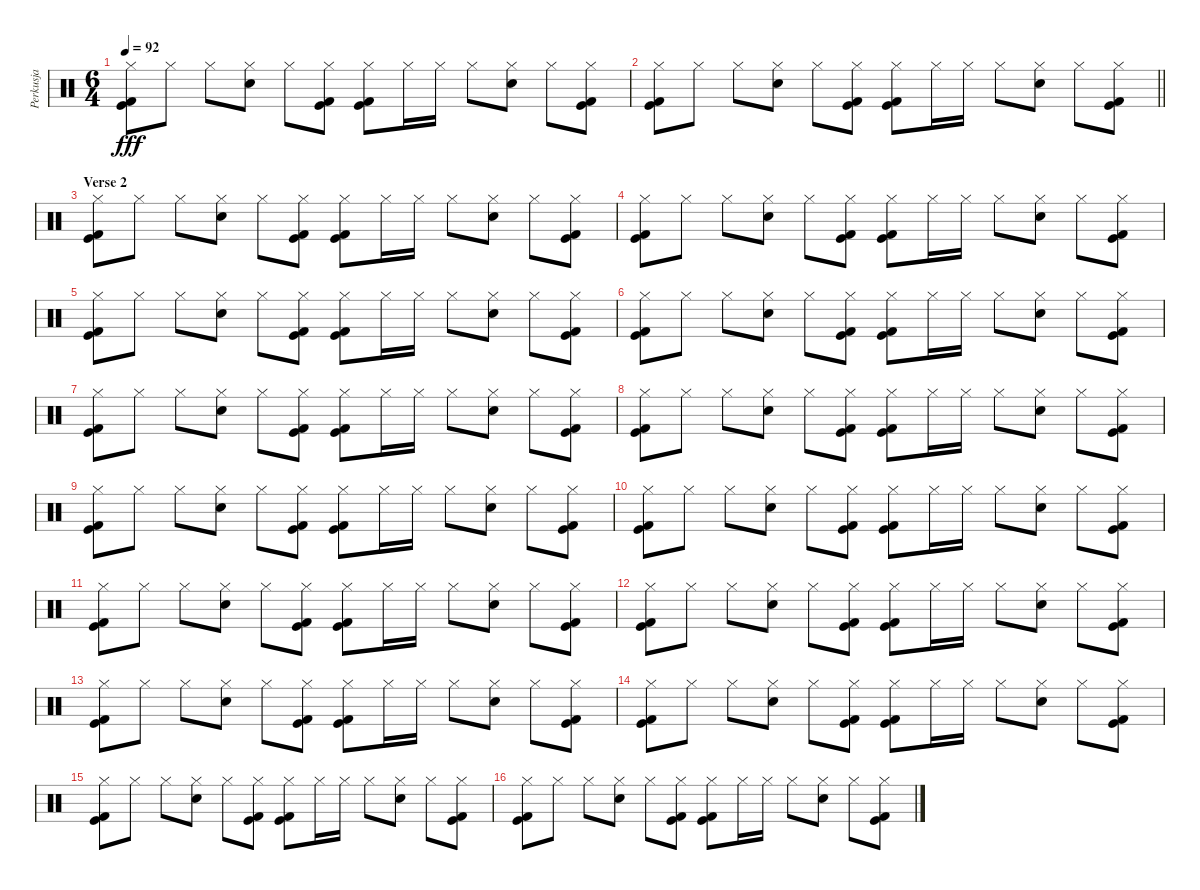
\track ("Perkusja" "Perkusja") {instrument percussion}
\staff {score}
\articulation defaults
\ts (6 4)
\tempo 92
\clef neutral
\ks c
("Hi-Hat (closed)" "Kick (hit)" "Kick (hit) 2").8{dy fff} "Hi-Hat (closed)".8 "Hi-Hat (closed)".8 ("Hi-Hat (closed)" "Electric Snare (hit)").8 "Hi-Hat (closed)".8 ("Hi-Hat (closed)" "Kick (hit)" "Kick (hit) 2").8 ("Hi-Hat (closed)" "Kick (hit)" "Kick (hit) 2").8 "Hi-Hat (closed)".16 "Hi-Hat (closed)".16 "Hi-Hat (closed)".8 ("Hi-Hat (closed)" "Electric Snare (hit)").8 "Hi-Hat (closed)".8 ("Hi-Hat (closed)" "Kick (hit)" "Kick (hit) 2").8 |
\barLineRight lightlight
("Hi-Hat (closed)" "Kick (hit)" "Kick (hit) 2").8 "Hi-Hat (closed)".8 "Hi-Hat (closed)".8 ("Hi-Hat (closed)" "Electric Snare (hit)").8 "Hi-Hat (closed)".8 ("Hi-Hat (closed)" "Kick (hit)" "Kick (hit) 2").8 ("Hi-Hat (closed)" "Kick (hit)" "Kick (hit) 2").8 "Hi-Hat (closed)".16 "Hi-Hat (closed)".16 "Hi-Hat (closed)".8 ("Hi-Hat (closed)" "Electric Snare (hit)").8 "Hi-Hat (closed)".8 ("Hi-Hat (closed)" "Kick (hit)" "Kick (hit) 2").8 |
\section ("" "Verse 2")
("Hi-Hat (closed)" "Kick (hit)" "Kick (hit) 2").8 "Hi-Hat (closed)".8 "Hi-Hat (closed)".8 ("Hi-Hat (closed)" "Electric Snare (hit)").8 "Hi-Hat (closed)".8 ("Hi-Hat (closed)" "Kick (hit)" "Kick (hit) 2").8 ("Hi-Hat (closed)" "Kick (hit)" "Kick (hit) 2").8 "Hi-Hat (closed)".16 "Hi-Hat (closed)".16 "Hi-Hat (closed)".8 ("Hi-Hat (closed)" "Electric Snare (hit)").8 "Hi-Hat (closed)".8 ("Hi-Hat (closed)" "Kick (hit)" "Kick (hit) 2").8 |
("Hi-Hat (closed)" "Kick (hit)" "Kick (hit) 2").8 "Hi-Hat (closed)".8 "Hi-Hat (closed)".8 ("Hi-Hat (closed)" "Electric Snare (hit)").8 "Hi-Hat (closed)".8 ("Hi-Hat (closed)" "Kick (hit)" "Kick (hit) 2").8 ("Hi-Hat (closed)" "Kick (hit)" "Kick (hit) 2").8 "Hi-Hat (closed)".16 "Hi-Hat (closed)".16 "Hi-Hat (closed)".8 ("Hi-Hat (closed)" "Electric Snare (hit)").8 "Hi-Hat (closed)".8 ("Hi-Hat (closed)" "Kick (hit)" "Kick (hit) 2").8 |
("Hi-Hat (closed)" "Kick (hit)" "Kick (hit) 2").8 "Hi-Hat (closed)".8 "Hi-Hat (closed)".8 ("Hi-Hat (closed)" "Electric Snare (hit)").8 "Hi-Hat (closed)".8 ("Hi-Hat (closed)" "Kick (hit)" "Kick (hit) 2").8 ("Hi-Hat (closed)" "Kick (hit)" "Kick (hit) 2").8 "Hi-Hat (closed)".16 "Hi-Hat (closed)".16 "Hi-Hat (closed)".8 ("Hi-Hat (closed)" "Electric Snare (hit)").8 "Hi-Hat (closed)".8 ("Hi-Hat (closed)" "Kick (hit)" "Kick (hit) 2").8 |
("Hi-Hat (closed)" "Kick (hit)" "Kick (hit) 2").8 "Hi-Hat (closed)".8 "Hi-Hat (closed)".8 ("Hi-Hat (closed)" "Electric Snare (hit)").8 "Hi-Hat (closed)".8 ("Hi-Hat (closed)" "Kick (hit)" "Kick (hit) 2").8 ("Hi-Hat (closed)" "Kick (hit)" "Kick (hit) 2").8 "Hi-Hat (closed)".16 "Hi-Hat (closed)".16 "Hi-Hat (closed)".8 ("Hi-Hat (closed)" "Electric Snare (hit)").8 "Hi-Hat (closed)".8 ("Hi-Hat (closed)" "Kick (hit)" "Kick (hit) 2").8 |
("Hi-Hat (closed)" "Kick (hit)" "Kick (hit) 2").8 "Hi-Hat (closed)".8 "Hi-Hat (closed)".8 ("Hi-Hat (closed)" "Electric Snare (hit)").8 "Hi-Hat (closed)".8 ("Hi-Hat (closed)" "Kick (hit)" "Kick (hit) 2").8 ("Hi-Hat (closed)" "Kick (hit)" "Kick (hit) 2").8 "Hi-Hat (closed)".16 "Hi-Hat (closed)".16 "Hi-Hat (closed)".8 ("Hi-Hat (closed)" "Electric Snare (hit)").8 "Hi-Hat (closed)".8 ("Hi-Hat (closed)" "Kick (hit)" "Kick (hit) 2").8 |
("Hi-Hat (closed)" "Kick (hit)" "Kick (hit) 2").8 "Hi-Hat (closed)".8 "Hi-Hat (closed)".8 ("Hi-Hat (closed)" "Electric Snare (hit)").8 "Hi-Hat (closed)".8 ("Hi-Hat (closed)" "Kick (hit)" "Kick (hit) 2").8 ("Hi-Hat (closed)" "Kick (hit)" "Kick (hit) 2").8 "Hi-Hat (closed)".16 "Hi-Hat (closed)".16 "Hi-Hat (closed)".8 ("Hi-Hat (closed)" "Electric Snare (hit)").8 "Hi-Hat (closed)".8 ("Hi-Hat (closed)" "Kick (hit)" "Kick (hit) 2").8 |
("Hi-Hat (closed)" "Kick (hit)" "Kick (hit) 2").8 "Hi-Hat (closed)".8 "Hi-Hat (closed)".8 ("Hi-Hat (closed)" "Electric Snare (hit)").8 "Hi-Hat (closed)".8 ("Hi-Hat (closed)" "Kick (hit)" "Kick (hit) 2").8 ("Hi-Hat (closed)" "Kick (hit)" "Kick (hit) 2").8 "Hi-Hat (closed)".16 "Hi-Hat (closed)".16 "Hi-Hat (closed)".8 ("Hi-Hat (closed)" "Electric Snare (hit)").8 "Hi-Hat (closed)".8 ("Hi-Hat (closed)" "Kick (hit)" "Kick (hit) 2").8 |
("Hi-Hat (closed)" "Kick (hit)" "Kick (hit) 2").8 "Hi-Hat (closed)".8 "Hi-Hat (closed)".8 ("Hi-Hat (closed)" "Electric Snare (hit)").8 "Hi-Hat (closed)".8 ("Hi-Hat (closed)" "Kick (hit)" "Kick (hit) 2").8 ("Hi-Hat (closed)" "Kick (hit)" "Kick (hit) 2").8 "Hi-Hat (closed)".16 "Hi-Hat (closed)".16 "Hi-Hat (closed)".8 ("Hi-Hat (closed)" "Electric Snare (hit)").8 "Hi-Hat (closed)".8 ("Hi-Hat (closed)" "Kick (hit)" "Kick (hit) 2").8 |
("Hi-Hat (closed)" "Kick (hit)" "Kick (hit) 2").8 "Hi-Hat (closed)".8 "Hi-Hat (closed)".8 ("Hi-Hat (closed)" "Electric Snare (hit)").8 "Hi-Hat (closed)".8 ("Hi-Hat (closed)" "Kick (hit)" "Kick (hit) 2").8 ("Hi-Hat (closed)" "Kick (hit)" "Kick (hit) 2").8 "Hi-Hat (closed)".16 "Hi-Hat (closed)".16 "Hi-Hat (closed)".8 ("Hi-Hat (closed)" "Electric Snare (hit)").8 "Hi-Hat (closed)".8 ("Hi-Hat (closed)" "Kick (hit)" "Kick (hit) 2").8 |
("Hi-Hat (closed)" "Kick (hit)" "Kick (hit) 2").8 "Hi-Hat (closed)".8 "Hi-Hat (closed)".8 ("Hi-Hat (closed)" "Electric Snare (hit)").8 "Hi-Hat (closed)".8 ("Hi-Hat (closed)" "Kick (hit)" "Kick (hit) 2").8 ("Hi-Hat (closed)" "Kick (hit)" "Kick (hit) 2").8 "Hi-Hat (closed)".16 "Hi-Hat (closed)".16 "Hi-Hat (closed)".8 ("Hi-Hat (closed)" "Electric Snare (hit)").8 "Hi-Hat (closed)".8 ("Hi-Hat (closed)" "Kick (hit)" "Kick (hit) 2").8 |
("Hi-Hat (closed)" "Kick (hit)" "Kick (hit) 2").8 "Hi-Hat (closed)".8 "Hi-Hat (closed)".8 ("Hi-Hat (closed)" "Electric Snare (hit)").8 "Hi-Hat (closed)".8 ("Hi-Hat (closed)" "Kick (hit)" "Kick (hit) 2").8 ("Hi-Hat (closed)" "Kick (hit)" "Kick (hit) 2").8 "Hi-Hat (closed)".16 "Hi-Hat (closed)".16 "Hi-Hat (closed)".8 ("Hi-Hat (closed)" "Electric Snare (hit)").8 "Hi-Hat (closed)".8 ("Hi-Hat (closed)" "Kick (hit)" "Kick (hit) 2").8 |
("Hi-Hat (closed)" "Kick (hit)" "Kick (hit) 2").8 "Hi-Hat (closed)".8 "Hi-Hat (closed)".8 ("Hi-Hat (closed)" "Electric Snare (hit)").8 "Hi-Hat (closed)".8 ("Hi-Hat (closed)" "Kick (hit)" "Kick (hit) 2").8 ("Hi-Hat (closed)" "Kick (hit)" "Kick (hit) 2").8 "Hi-Hat (closed)".16 "Hi-Hat (closed)".16 "Hi-Hat (closed)".8 ("Hi-Hat (closed)" "Electric Snare (hit)").8 "Hi-Hat (closed)".8 ("Hi-Hat (closed)" "Kick (hit)" "Kick (hit) 2").8 |
("Hi-Hat (closed)" "Kick (hit)" "Kick (hit) 2").8 "Hi-Hat (closed)".8 "Hi-Hat (closed)".8 ("Hi-Hat (closed)" "Electric Snare (hit)").8 "Hi-Hat (closed)".8 ("Hi-Hat (closed)" "Kick (hit)" "Kick (hit) 2").8 ("Hi-Hat (closed)" "Kick (hit)" "Kick (hit) 2").8 "Hi-Hat (closed)".16 "Hi-Hat (closed)".16 "Hi-Hat (closed)".8 ("Hi-Hat (closed)" "Electric Snare (hit)").8 "Hi-Hat (closed)".8 ("Hi-Hat (closed)" "Kick (hit)" "Kick (hit) 2").8 |
("Hi-Hat (closed)" "Kick (hit)" "Kick (hit) 2").8 "Hi-Hat (closed)".8 "Hi-Hat (closed)".8 ("Hi-Hat (closed)" "Electric Snare (hit)").8 "Hi-Hat (closed)".8 ("Hi-Hat (closed)" "Kick (hit)" "Kick (hit) 2").8 ("Hi-Hat (closed)" "Kick (hit)" "Kick (hit) 2").8 "Hi-Hat (closed)".16 "Hi-Hat (closed)".16 "Hi-Hat (closed)".8 ("Hi-Hat (closed)" "Electric Snare (hit)").8 "Hi-Hat (closed)".8 ("Hi-Hat (closed)" "Kick (hit)" "Kick (hit) 2").8
